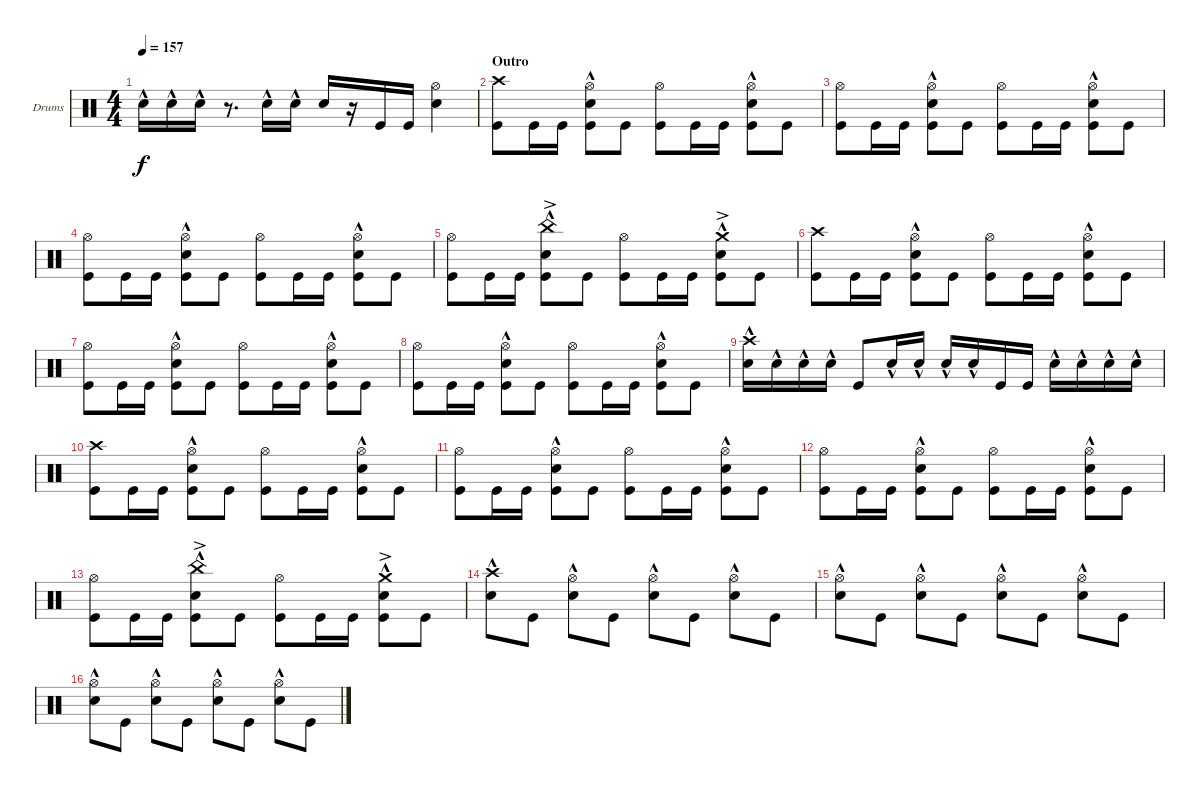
\defaultSystemsLayout 4
\bracketExtendMode groupsimilarinstruments
\firstSystemTrackNameOrientation horizontal
\otherSystemsTrackNameOrientation horizontal
\track ("Drumkit - Natsu" "Drums") {instrument percussion}
\staff {score}
\articulation defaults
\ts (4 4)
\tempo 157
\clef neutral
\ks c "Snare (hit) 2"{hac}.16{dy f} "Snare (hit) 2"{hac}.16 "Snare (hit) 2"{hac}.16
r.8{d} "Snare (hit) 2"{hac}.16 "Snare (hit) 2"{hac}.16 "Snare (hit) 2".16 r.16 "Kick (hit)".16 "Kick (hit)".16 ("Snare (hit) 2" "Hi-Hat (open)").4 |
\section ("" "Outro")
("Crash high (hit)" "Kick (hit)").8 "Kick (hit)".16 "Kick (hit)".16 ("Snare (hit) 2"{hac} "Hi-Hat (open)" "Kick (hit)").8 "Kick (hit)".8 ("Kick (hit)" "Hi-Hat (open)").8 "Kick (hit)".16 "Kick (hit)".16 ("Snare (hit) 2"{hac} "Hi-Hat (open)" "Kick (hit)").8 "Kick (hit)".8 |
("Kick (hit)" "Hi-Hat (open)").8 "Kick (hit)".16 "Kick (hit)".16 ("Snare (hit) 2"{hac} "Hi-Hat (open)" "Kick (hit)").8 "Kick (hit)".8 ("Kick (hit)" "Hi-Hat (open)").8 "Kick (hit)".16 "Kick (hit)".16 ("Snare (hit) 2"{hac} "Hi-Hat (open)" "Kick (hit)").8 "Kick (hit)".8 |
("Kick (hit)" "Hi-Hat (open)").8 "Kick (hit)".16 "Kick (hit)".16 ("Snare (hit) 2"{hac} "Hi-Hat (open)" "Kick (hit)").8 "Kick (hit)".8 ("Kick (hit)" "Hi-Hat (open)").8 "Kick (hit)".16 "Kick (hit)".16 ("Snare (hit) 2"{hac} "Hi-Hat (open)" "Kick (hit)").8 "Kick (hit)".8 |
("Kick (hit)" "Hi-Hat (open)").8 "Kick (hit)".16 "Kick (hit)".16 ("Snare (hit) 2"{hac} "China (hit)"{ac} "Kick (hit)").8 "Kick (hit)".8 ("Kick (hit)" "Hi-Hat (open)").8 "Kick (hit)".16 "Kick (hit)".16 ("Snare (hit) 2"{hac} "Crash medium (hit)"{ac} "Kick (hit)").8 "Kick (hit)".8 |
("Crash high (hit)" "Kick (hit)").8 "Kick (hit)".16 "Kick (hit)".16 ("Snare (hit) 2"{hac} "Hi-Hat (open)" "Kick (hit)").8 "Kick (hit)".8 ("Kick (hit)" "Hi-Hat (open)").8 "Kick (hit)".16 "Kick (hit)".16 ("Snare (hit) 2"{hac} "Hi-Hat (open)" "Kick (hit)").8 "Kick (hit)".8 |
("Kick (hit)" "Hi-Hat (open)").8 "Kick (hit)".16 "Kick (hit)".16 ("Snare (hit) 2"{hac} "Hi-Hat (open)" "Kick (hit)").8 "Kick (hit)".8 ("Kick (hit)" "Hi-Hat (open)").8 "Kick (hit)".16 "Kick (hit)".16 ("Snare (hit) 2"{hac} "Hi-Hat (open)" "Kick (hit)").8 "Kick (hit)".8 |
("Kick (hit)" "Hi-Hat (open)").8 "Kick (hit)".16 "Kick (hit)".16 ("Snare (hit) 2"{hac} "Hi-Hat (open)" "Kick (hit)").8 "Kick (hit)".8 ("Kick (hit)" "Hi-Hat (open)").8 "Kick (hit)".16 "Kick (hit)".16 ("Snare (hit) 2"{hac} "Hi-Hat (open)" "Kick (hit)").8 "Kick (hit)".8 |
("Snare (hit) 2"{hac} "Crash high (hit)").16 "Snare (hit) 2"{hac}.16 "Snare (hit) 2"{hac}.16 "Snare (hit) 2"{hac}.16 "Kick (hit)".8 "Snare (hit) 2"{hac}.16 "Snare (hit) 2"{hac}.16 "Snare (hit) 2"{hac}.16 "Snare (hit) 2"{hac}.16 "Kick (hit)".16 "Kick (hit)".16 "Snare (hit) 2"{hac}.16 "Snare (hit) 2"{hac}.16 "Snare (hit) 2"{hac}.16 "Snare (hit) 2"{hac}.16 |
("Crash high (hit)" "Kick (hit)").8 "Kick (hit)".16 "Kick (hit)".16 ("Snare (hit) 2"{hac} "Hi-Hat (open)" "Kick (hit)").8 "Kick (hit)".8 ("Kick (hit)" "Hi-Hat (open)").8 "Kick (hit)".16 "Kick (hit)".16 ("Snare (hit) 2"{hac} "Hi-Hat (open)" "Kick (hit)").8 "Kick (hit)".8 |
("Kick (hit)" "Hi-Hat (open)").8 "Kick (hit)".16 "Kick (hit)".16 ("Snare (hit) 2"{hac} "Hi-Hat (open)" "Kick (hit)").8 "Kick (hit)".8 ("Kick (hit)" "Hi-Hat (open)").8 "Kick (hit)".16 "Kick (hit)".16 ("Snare (hit) 2"{hac} "Hi-Hat (open)" "Kick (hit)").8 "Kick (hit)".8 |
("Kick (hit)" "Hi-Hat (open)").8 "Kick (hit)".16 "Kick (hit)".16 ("Snare (hit) 2"{hac} "Hi-Hat (open)" "Kick (hit)").8 "Kick (hit)".8 ("Kick (hit)" "Hi-Hat (open)").8 "Kick (hit)".16 "Kick (hit)".16 ("Snare (hit) 2"{hac} "Hi-Hat (open)" "Kick (hit)").8 "Kick (hit)".8 |
("Kick (hit)" "Hi-Hat (open)").8 "Kick (hit)".16 "Kick (hit)".16 ("Snare (hit) 2"{hac} "China (hit)"{ac} "Kick (hit)").8 "Kick (hit)".8 ("Kick (hit)" "Hi-Hat (open)").8 "Kick (hit)".16 "Kick (hit)".16 ("Snare (hit) 2"{hac} "Crash medium (hit)"{ac} "Kick (hit)").8 "Kick (hit)".8 |
("Snare (hit) 2"{hac} "Crash high (hit)").8 "Kick (hit)".8 ("Snare (hit) 2"{hac} "Hi-Hat (open)").8 "Kick (hit)".8 ("Snare (hit) 2"{hac} "Hi-Hat (open)").8 "Kick (hit)".8 ("Snare (hit) 2"{hac} "Hi-Hat (open)").8 "Kick (hit)".8 |
("Snare (hit) 2"{hac} "Hi-Hat (open)").8 "Kick (hit)".8 ("Snare (hit) 2"{hac} "Hi-Hat (open)").8 "Kick (hit)".8 ("Snare (hit) 2"{hac} "Hi-Hat (open)").8 "Kick (hit)".8 ("Snare (hit) 2"{hac} "Hi-Hat (open)").8 "Kick (hit)".8 |
("Snare (hit) 2"{hac} "Hi-Hat (open)").8 "Kick (hit)".8 ("Snare (hit) 2"{hac} "Hi-Hat (open)").8 "Kick (hit)".8 ("Snare (hit) 2"{hac} "Hi-Hat (open)").8 "Kick (hit)".8 ("Snare (hit) 2"{hac} "Hi-Hat (open)").8 "Kick (hit)".8
